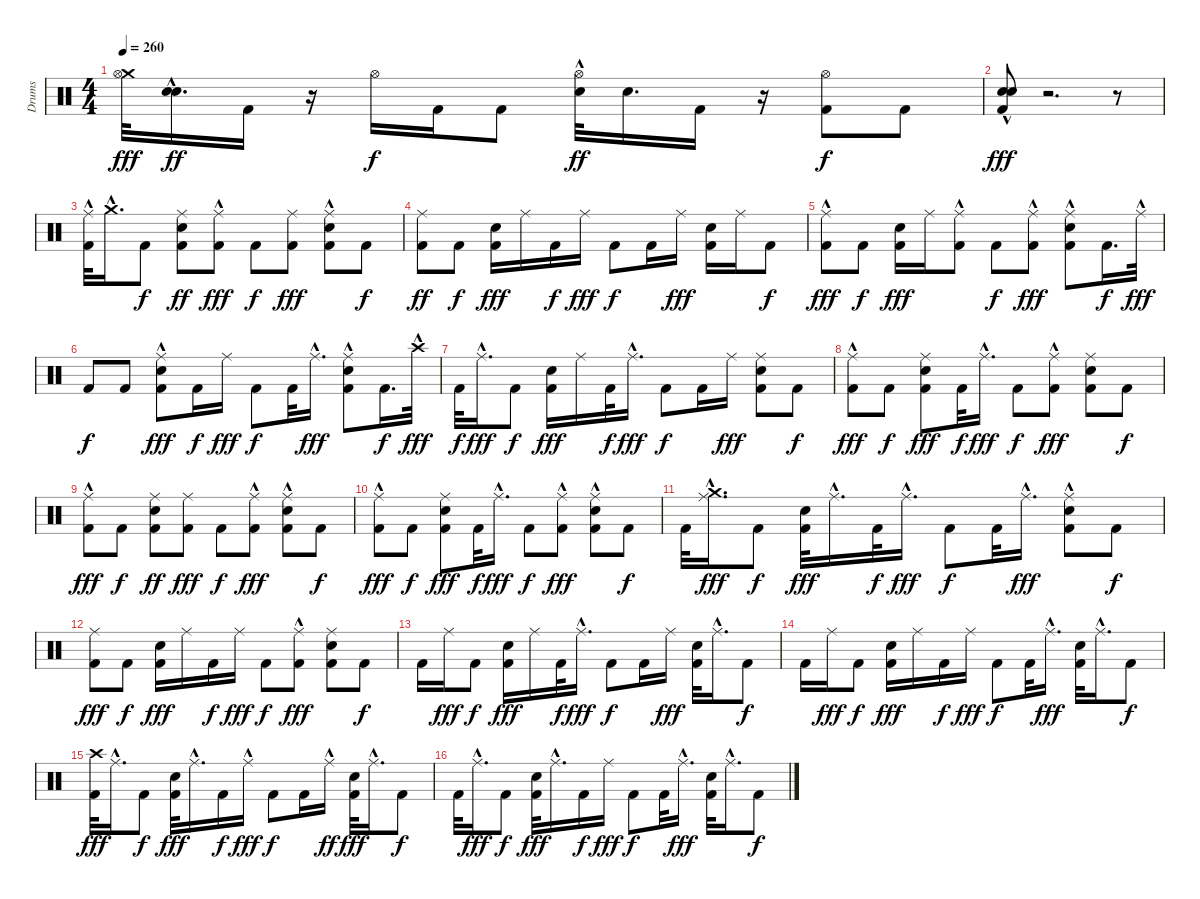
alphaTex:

\track ("Drums" "Drums") {instrument percussion}
\staff {score}
\articulation defaults
\ts (4 4)
\tempo 260
\clef neutral
\ks c
("Crash medium (hit)" "Hi-Hat (open)").32{dy fff} ("Electric Snare (hit)"{hac} "Snare (hit) 2"{hac}).16{d dy ff} "Kick (hit) 2".16 r.16 "Hi-Hat (open)".16{dy f} "Kick (hit) 2".16 "Kick (hit) 2".8 ("Electric Snare (hit)"{hac} "Hi-Hat (open)").32{dy ff} "Snare (hit) 2".16{d} "Kick (hit) 2".16 r.16 ("Hi-Hat (open)" "Kick (hit) 2").8{dy f} "Kick (hit) 2".8 |
("Electric Snare (hit)"{hac} "Snare (hit) 2"{hac} "Kick (hit) 2").8{dy fff} r.2{d} r.8 |
("Ride (middle)"{hac} "Kick (hit) 2").32 "Crash medium (hit)"{hac}.16{d} "Kick (hit) 2".8{dy f} ("Snare (hit) 2" "Kick (hit) 2" "Ride (middle)").8{dy ff} ("Kick (hit) 2" "Ride (middle)"{hac}).8{dy fff} "Kick (hit) 2".8{dy f} ("Ride (middle)" "Kick (hit) 2").8{dy fff} ("Snare (hit) 2" "Kick (hit) 2" "Ride (middle)"{hac}).8 "Kick (hit) 2".8{dy f} |
("Kick (hit) 2" "Ride (middle)").8{dy ff} "Kick (hit) 2".8{dy f} ("Snare (hit) 2" "Kick (hit) 2").16{dy fff} "Ride (middle)".16 "Kick (hit) 2".16{dy f} "Ride (middle)".16{dy fff} "Kick (hit) 2".8{dy f} "Kick (hit) 2".16 "Ride (middle)".16{dy fff} ("Snare (hit) 2" "Kick (hit) 2").16 "Ride (middle)".16 "Kick (hit) 2".8{dy f} |
("Kick (hit) 2" "Ride (middle)"{hac}).8{dy fff} "Kick (hit) 2".8{dy f} ("Snare (hit) 2" "Kick (hit) 2").16{dy fff} "Ride (middle)".16 ("Kick (hit) 2" "Ride (middle)"{hac}).8 "Kick (hit) 2".8{dy f} ("Kick (hit) 2" "Ride (middle)"{hac}).8{dy fff} ("Ride (middle)"{hac} "Snare (hit) 2" "Kick (hit) 2").8 "Kick (hit) 2".16{d dy f} "Ride (middle)"{hac}.32{dy fff} |
"Kick (hit) 2".8{dy f} "Kick (hit) 2".8 ("Snare (hit) 2" "Kick (hit) 2" "Ride (middle)"{hac}).8{dy fff} "Kick (hit) 2".16{dy f} "Ride (middle)".16{dy fff} "Kick (hit) 2".8{dy f} "Kick (hit) 2".32 "Ride (middle)"{hac}.16{d dy fff} ("Snare (hit) 2" "Kick (hit) 2" "Ride (middle)"{hac}).8 "Kick (hit) 2".16{d dy f} "Crash high (hit)"{hac}.32{dy fff} |
"Kick (hit) 2".32{dy f} "Ride (middle)"{hac}.16{d dy fff} "Kick (hit) 2".8{dy f} ("Snare (hit) 2" "Kick (hit) 2").16{dy fff} "Ride (middle)".16 "Kick (hit) 2".32{dy f} "Ride (middle)"{hac}.16{d dy fff} "Kick (hit) 2".8{dy f} "Kick (hit) 2".16 "Ride (middle)".16{dy fff} ("Ride (middle)" "Snare (hit) 2" "Kick (hit) 2").8 "Kick (hit) 2".8{dy f} |
("Ride (middle)"{hac} "Kick (hit) 2").8{dy fff} "Kick (hit) 2".8{dy f} ("Snare (hit) 2" "Kick (hit) 2" "Ride (middle)").8{dy fff} "Kick (hit) 2".32{dy f} "Ride (middle)"{hac}.16{d dy fff} "Kick (hit) 2".8{dy f} ("Ride (middle)"{hac} "Kick (hit) 2").8{dy fff} ("Ride (middle)" "Snare (hit) 2" "Kick (hit) 2").8 "Kick (hit) 2".8{dy f} |
("Kick (hit) 2" "Ride (middle)"{hac}).8{dy fff} "Kick (hit) 2".8{dy f} ("Snare (hit) 2" "Kick (hit) 2" "Ride (middle)").8{dy ff} ("Ride (middle)" "Kick (hit) 2").8{dy fff} "Kick (hit) 2".8{dy f} ("Ride (middle)"{hac} "Kick (hit) 2").8{dy fff} ("Ride (middle)"{hac} "Snare (hit) 2" "Kick (hit) 2").8 "Kick (hit) 2".8{dy f} |
("Kick (hit) 2" "Ride (middle)"{hac}).8{dy fff} "Kick (hit) 2".8{dy f} ("Snare (hit) 2" "Kick (hit) 2" "Ride (middle)").8{dy fff} "Kick (hit) 2".32{dy f} "Ride (middle)"{hac}.16{d dy fff} "Kick (hit) 2".8{dy f} ("Kick (hit) 2" "Ride (middle)"{hac}).8{dy fff} ("Snare (hit) 2" "Kick (hit) 2" "Ride (middle)"{hac}).8 "Kick (hit) 2".8{dy f} |
"Kick (hit) 2".32 ("Crash medium (hit)" "Ride (middle)"{hac}).16{d dy fff} "Kick (hit) 2".8{dy f} ("Snare (hit) 2" "Kick (hit) 2").32{dy fff} "Ride (middle)"{hac}.16{d} "Kick (hit) 2".32{dy f} "Ride (middle)"{hac}.16{d dy fff} "Kick (hit) 2".8{dy f} "Kick (hit) 2".32 "Ride (middle)"{hac}.16{d dy fff} ("Snare (hit) 2" "Kick (hit) 2" "Ride (middle)"{hac}).8 "Kick (hit) 2".8{dy f} |
("Ride (middle)" "Kick (hit) 2").8{dy fff} "Kick (hit) 2".8{dy f} ("Snare (hit) 2" "Kick (hit) 2").16{dy fff} "Ride (middle)".16 "Kick (hit) 2".16{dy f} "Ride (middle)".16{dy fff} "Kick (hit) 2".8{dy f} ("Kick (hit) 2" "Ride (middle)"{hac}).8{dy fff} ("Snare (hit) 2" "Kick (hit) 2" "Ride (middle)").8 "Kick (hit) 2".8{dy f} |
"Kick (hit) 2".16 "Ride (middle)".16{dy fff} "Kick (hit) 2".8{dy f} ("Snare (hit) 2" "Kick (hit) 2").16{dy fff} "Ride (middle)".16 "Kick (hit) 2".32{dy f} "Ride (middle)"{hac}.16{d dy fff} "Kick (hit) 2".8{dy f} "Kick (hit) 2".16 "Ride (middle)".16{dy fff} ("Snare (hit) 2" "Kick (hit) 2").32 "Ride (middle)"{hac}.16{d} "Kick (hit) 2".8{dy f} |
"Kick (hit) 2".16 "Ride (middle)".16{dy fff} "Kick (hit) 2".8{dy f} ("Snare (hit) 2" "Kick (hit) 2").16{dy fff} "Ride (middle)".16 "Kick (hit) 2".16{dy f} "Ride (middle)".16{dy fff} "Kick (hit) 2".8{dy f} "Kick (hit) 2".32 "Ride (middle)"{hac}.16{d dy fff} ("Snare (hit) 2" "Kick (hit) 2").32 "Ride (middle)"{hac}.16{d} "Kick (hit) 2".8{dy f} |
("Kick (hit) 2" "Crash high (hit)").32{dy fff} "Ride (middle)"{hac}.16{d} "Kick (hit) 2".8{dy f} ("Snare (hit) 2" "Kick (hit) 2").32{dy fff} "Ride (middle)"{hac}.16{d} "Kick (hit) 2".16{dy f} "Ride (middle)"{hac}.16{dy fff} "Kick (hit) 2".8{dy f} "Kick (hit) 2".16 "Ride (middle)"{hac}.16{dy ff} ("Snare (hit) 2" "Kick (hit) 2").32{dy fff} "Ride (middle)"{hac}.16{d} "Kick (hit) 2".8{dy f} |
"Kick (hit) 2".32 "Ride (middle)"{hac}.16{d dy fff} "Kick (hit) 2".8{dy f} ("Snare (hit) 2" "Kick (hit) 2").32{dy fff} "Ride (middle)"{hac}.16{d} "Kick (hit) 2".16{dy f} "Ride (middle)".16{dy fff} "Kick (hit) 2".8{dy f} "Kick (hit) 2".32 "Ride (middle)"{hac}.16{d dy fff} ("Snare (hit) 2" "Kick (hit) 2").32 "Ride (middle)"{hac}.16{d} "Kick (hit) 2".8{dy f}
